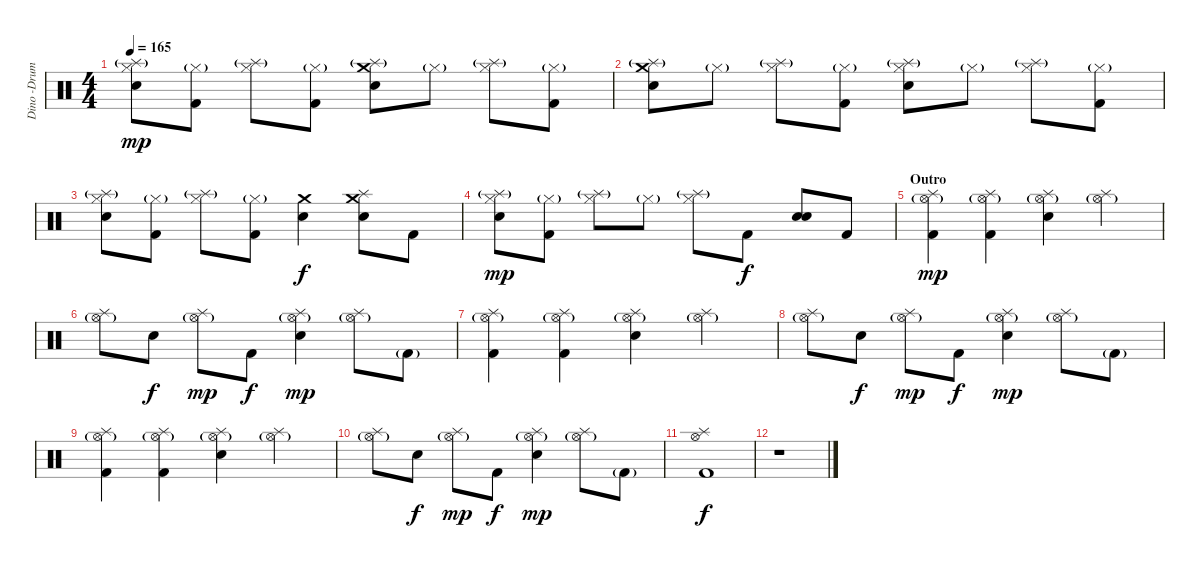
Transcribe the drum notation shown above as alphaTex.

\track ("Dino -Drums" "Dino -Drum") {instrument percussion}
\staff {score}
\articulation defaults
\ts (4 4)
\tempo 165
\clef neutral
\ks c
("Hi-Hat (closed)" "Splash (hit)"{g} "Electric Snare (hit)").8{dy mp} ("Hi-Hat (closed)"{g} "Kick (hit) 2").8 ("Hi-Hat (closed)" "Splash (hit)"{g}).8 ("Hi-Hat (closed)"{g} "Kick (hit) 2").8 ("Crash medium (hit)" "Splash (hit)"{g} "Electric Snare (hit)").8 "Hi-Hat (closed)"{g}.8 ("Hi-Hat (closed)" "Splash (hit)"{g}).8 ("Hi-Hat (closed)"{g} "Kick (hit) 2").8 |
("Crash medium (hit)" "Splash (hit)"{g} "Electric Snare (hit)").8 "Hi-Hat (closed)"{g}.8 ("Hi-Hat (closed)" "Splash (hit)"{g}).8 ("Hi-Hat (closed)"{g} "Kick (hit) 2").8 ("Hi-Hat (closed)" "Splash (hit)"{g} "Electric Snare (hit)").8 "Hi-Hat (closed)"{g}.8 ("Hi-Hat (closed)" "Splash (hit)"{g}).8 ("Hi-Hat (closed)"{g} "Kick (hit) 2").8 |
("Hi-Hat (closed)" "Splash (hit)"{g} "Electric Snare (hit)").8 ("Hi-Hat (closed)"{g} "Kick (hit) 2").8 ("Hi-Hat (closed)" "Splash (hit)"{g}).8 ("Hi-Hat (closed)"{g} "Kick (hit) 2").8 ("Crash medium (hit)" "Electric Snare (hit)").4{dy f} ("Crash medium (hit)" "Splash (hit)" "Electric Snare (hit)").8 "Kick (hit) 2".8 |
("Hi-Hat (closed)" "Splash (hit)"{g} "Electric Snare (hit)").8{dy mp} ("Hi-Hat (closed)"{g} "Kick (hit) 2").8 ("Hi-Hat (closed)" "Splash (hit)"{g}).8 "Hi-Hat (closed)"{g}.8 ("Hi-Hat (closed)" "Splash (hit)"{g}).8 "Kick (hit) 2".8{dy f} ("Electric Snare (hit)" "Electric Snare (hit)").8{bd 480} "Kick (hit) 2".8 |
\section ("" "Outro")
("Splash (hit)" "Hi-Hat (open)"{g} "Kick (hit) 2").4{dy mp} ("Splash (hit)" "Hi-Hat (open)"{g} "Kick (hit) 2").4 ("Splash (hit)" "Hi-Hat (open)"{g} "Electric Snare (hit)").4 ("Splash (hit)" "Hi-Hat (open)"{g}).4 |
("Splash (hit)" "Hi-Hat (open)"{g}).8 "Electric Snare (hit)".8{dy f} ("Splash (hit)" "Hi-Hat (open)"{g}).8{dy mp} "Kick (hit) 2".8{dy f} ("Splash (hit)" "Hi-Hat (open)"{g} "Electric Snare (hit)").4{dy mp} ("Splash (hit)" "Hi-Hat (open)"{g}).8 "Kick (hit) 2"{g}.8 |
("Splash (hit)" "Hi-Hat (open)"{g} "Kick (hit) 2").4 ("Splash (hit)" "Hi-Hat (open)"{g} "Kick (hit) 2").4 ("Splash (hit)" "Hi-Hat (open)"{g} "Electric Snare (hit)").4 ("Splash (hit)" "Hi-Hat (open)"{g}).4 |
("Splash (hit)" "Hi-Hat (open)"{g}).8 "Electric Snare (hit)".8{dy f} ("Splash (hit)" "Hi-Hat (open)"{g}).8{dy mp} "Kick (hit) 2".8{dy f} ("Splash (hit)" "Hi-Hat (open)"{g} "Electric Snare (hit)").4{dy mp} ("Splash (hit)" "Hi-Hat (open)"{g}).8 "Kick (hit) 2"{g}.8 |
("Splash (hit)" "Hi-Hat (open)"{g} "Kick (hit) 2").4 ("Splash (hit)" "Hi-Hat (open)"{g} "Kick (hit) 2").4 ("Splash (hit)" "Hi-Hat (open)"{g} "Electric Snare (hit)").4 ("Splash (hit)" "Hi-Hat (open)"{g}).4 |
("Splash (hit)" "Hi-Hat (open)"{g}).8 "Electric Snare (hit)".8{dy f} ("Splash (hit)" "Hi-Hat (open)"{g}).8{dy mp} "Kick (hit) 2".8{dy f} ("Splash (hit)" "Hi-Hat (open)"{g} "Electric Snare (hit)").4{dy mp} ("Splash (hit)" "Hi-Hat (open)"{g}).8 "Kick (hit) 2"{g}.8 |
("Splash (hit)" "Hi-Hat (open)" "Kick (hit) 2").1{dy f} |
r.1
